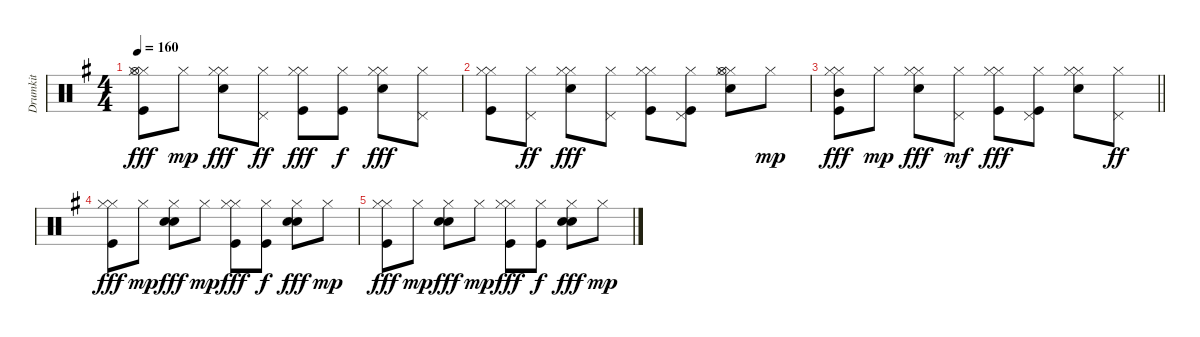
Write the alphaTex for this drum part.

\track ("Drumkit" "Drumkit") {instrument percussion}
\staff {score}
\articulation defaults
\ts (4 4)
\tempo 160
\clef neutral
\ks g
("Hi-Hat (closed)" "Kick (hit)" "Hi-Hat (open)" "Hi-Hat (closed)").8{dy fff} "Hi-Hat (closed)".8{dy mp} ("Snare (hit) 2" "Hi-Hat (closed)" "Hi-Hat (closed)").8{dy fff} ("Hi-Hat (closed)" "Pedal Hi-Hat (hit)").8{dy ff} ("Hi-Hat (closed)" "Kick (hit)" "Hi-Hat (closed)").8{dy fff} ("Hi-Hat (closed)" "Kick (hit)").8{dy f} ("Snare (hit) 2" "Hi-Hat (closed)" "Hi-Hat (closed)").8{dy fff} ("Hi-Hat (closed)" "Pedal Hi-Hat (hit)").8 |
("Hi-Hat (closed)" "Kick (hit)" "Hi-Hat (closed)").8 ("Hi-Hat (closed)" "Pedal Hi-Hat (hit)").8{dy ff} ("Snare (hit) 2" "Hi-Hat (closed)" "Hi-Hat (closed)").8{dy fff} ("Hi-Hat (closed)" "Pedal Hi-Hat (hit)").8 ("Hi-Hat (closed)" "Kick (hit)" "Hi-Hat (closed)").8 ("Hi-Hat (closed)" "Kick (hit)" "Pedal Hi-Hat (hit)").8 ("Snare (hit) 2" "Hi-Hat (closed)" "Hi-Hat (closed)" "Hi-Hat (open)").8 "Hi-Hat (closed)".8{dy mp} |
\barLineRight lightlight
("Hi-Hat (closed)" "Kick (hit)" "Mid Tom (hit)" "Hi-Hat (closed)").8{dy fff} "Hi-Hat (closed)".8{dy mp} ("Snare (hit) 2" "Hi-Hat (closed)" "Hi-Hat (closed)").8{dy fff} ("Hi-Hat (closed)" "Pedal Hi-Hat (hit)").8{dy mf} ("Hi-Hat (closed)" "Kick (hit)" "Hi-Hat (closed)").8{dy fff} ("Hi-Hat (closed)" "Kick (hit)" "Pedal Hi-Hat (hit)").8 ("Snare (hit) 2" "Hi-Hat (closed)" "Hi-Hat (closed)").8 ("Hi-Hat (closed)" "Pedal Hi-Hat (hit)").8{dy ff} |
("Hi-Hat (closed)" "Kick (hit)" "Hi-Hat (closed)").8{dy fff volume 0} "Hi-Hat (closed)".8{dy mp} ("Snare (hit) 2" "Hi-Hat (closed)" "Electric Snare (hit)").8{dy fff} "Hi-Hat (closed)".8{dy mp} ("Hi-Hat (closed)" "Kick (hit)" "Hi-Hat (closed)").8{dy fff} ("Hi-Hat (closed)" "Kick (hit)").8{dy f} ("Snare (hit) 2" "Hi-Hat (closed)" "Electric Snare (hit)").8{dy fff} "Hi-Hat (closed)".8{dy mp} |
("Hi-Hat (closed)" "Kick (hit)" "Hi-Hat (closed)").8{dy fff} "Hi-Hat (closed)".8{dy mp} ("Snare (hit) 2" "Hi-Hat (closed)" "Electric Snare (hit)").8{dy fff} "Hi-Hat (closed)".8{dy mp} ("Hi-Hat (closed)" "Kick (hit)" "Hi-Hat (closed)").8{dy fff} ("Hi-Hat (closed)" "Kick (hit)").8{dy f} ("Snare (hit) 2" "Hi-Hat (closed)" "Electric Snare (hit)").8{dy fff} "Hi-Hat (closed)".8{dy mp}
